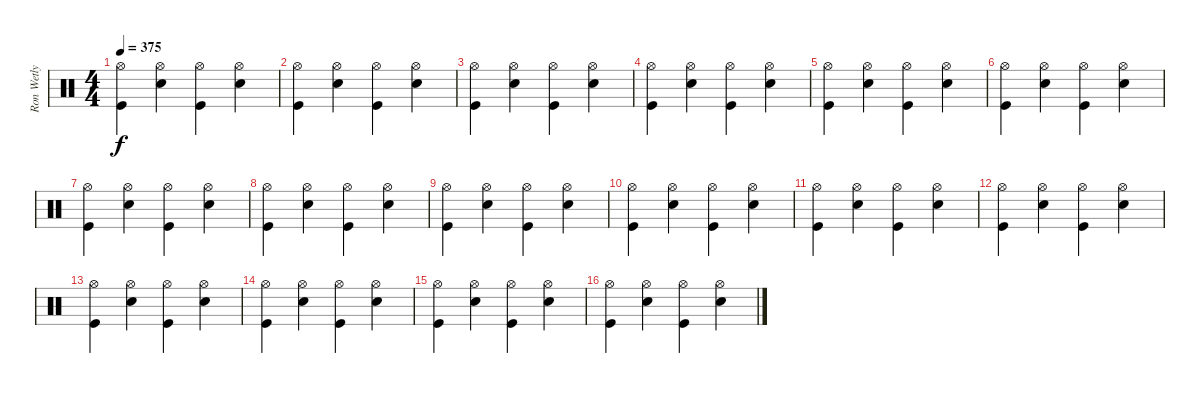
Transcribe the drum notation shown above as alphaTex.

\track ("Ron Wetly (Drums)" "Ron Wetly ") {instrument percussion}
\staff {score}
\articulation defaults
\ts (4 4)
\tempo 375
\clef neutral
\ks c
("Hi-Hat (open)" "Kick (hit)").4{dy f} ("Hi-Hat (open)" "Snare (hit) 2").4 ("Hi-Hat (open)" "Kick (hit)").4 ("Hi-Hat (open)" "Snare (hit) 2").4 |
("Hi-Hat (open)" "Kick (hit)").4 ("Hi-Hat (open)" "Snare (hit) 2").4 ("Hi-Hat (open)" "Kick (hit)").4 ("Hi-Hat (open)" "Snare (hit) 2").4 |
("Hi-Hat (open)" "Kick (hit)").4 ("Hi-Hat (open)" "Snare (hit) 2").4 ("Hi-Hat (open)" "Kick (hit)").4 ("Hi-Hat (open)" "Snare (hit) 2").4 |
("Hi-Hat (open)" "Kick (hit)").4 ("Hi-Hat (open)" "Snare (hit) 2").4 ("Hi-Hat (open)" "Kick (hit)").4 ("Hi-Hat (open)" "Snare (hit) 2").4 |
("Hi-Hat (open)" "Kick (hit)").4 ("Hi-Hat (open)" "Snare (hit) 2").4 ("Hi-Hat (open)" "Kick (hit)").4 ("Hi-Hat (open)" "Snare (hit) 2").4 |
("Hi-Hat (open)" "Kick (hit)").4 ("Hi-Hat (open)" "Snare (hit) 2").4 ("Hi-Hat (open)" "Kick (hit)").4 ("Hi-Hat (open)" "Snare (hit) 2").4 |
("Hi-Hat (open)" "Kick (hit)").4 ("Hi-Hat (open)" "Snare (hit) 2").4 ("Hi-Hat (open)" "Kick (hit)").4 ("Hi-Hat (open)" "Snare (hit) 2").4 |
("Hi-Hat (open)" "Kick (hit)").4 ("Hi-Hat (open)" "Snare (hit) 2").4 ("Hi-Hat (open)" "Kick (hit)").4 ("Hi-Hat (open)" "Snare (hit) 2").4 |
("Hi-Hat (open)" "Kick (hit)").4 ("Hi-Hat (open)" "Snare (hit) 2").4 ("Hi-Hat (open)" "Kick (hit)").4 ("Hi-Hat (open)" "Snare (hit) 2").4 |
("Hi-Hat (open)" "Kick (hit)").4 ("Hi-Hat (open)" "Snare (hit) 2").4 ("Hi-Hat (open)" "Kick (hit)").4 ("Hi-Hat (open)" "Snare (hit) 2").4 |
("Hi-Hat (open)" "Kick (hit)").4 ("Hi-Hat (open)" "Snare (hit) 2").4 ("Hi-Hat (open)" "Kick (hit)").4 ("Hi-Hat (open)" "Snare (hit) 2").4 |
("Hi-Hat (open)" "Kick (hit)").4 ("Hi-Hat (open)" "Snare (hit) 2").4 ("Hi-Hat (open)" "Kick (hit)").4 ("Hi-Hat (open)" "Snare (hit) 2").4 |
("Hi-Hat (open)" "Kick (hit)").4 ("Hi-Hat (open)" "Snare (hit) 2").4 ("Hi-Hat (open)" "Kick (hit)").4 ("Hi-Hat (open)" "Snare (hit) 2").4 |
("Hi-Hat (open)" "Kick (hit)").4 ("Hi-Hat (open)" "Snare (hit) 2").4 ("Hi-Hat (open)" "Kick (hit)").4 ("Hi-Hat (open)" "Snare (hit) 2").4 |
("Hi-Hat (open)" "Kick (hit)").4 ("Hi-Hat (open)" "Snare (hit) 2").4 ("Hi-Hat (open)" "Kick (hit)").4 ("Hi-Hat (open)" "Snare (hit) 2").4 |
("Hi-Hat (open)" "Kick (hit)").4 ("Hi-Hat (open)" "Snare (hit) 2").4 ("Hi-Hat (open)" "Kick (hit)").4 ("Hi-Hat (open)" "Snare (hit) 2").4
